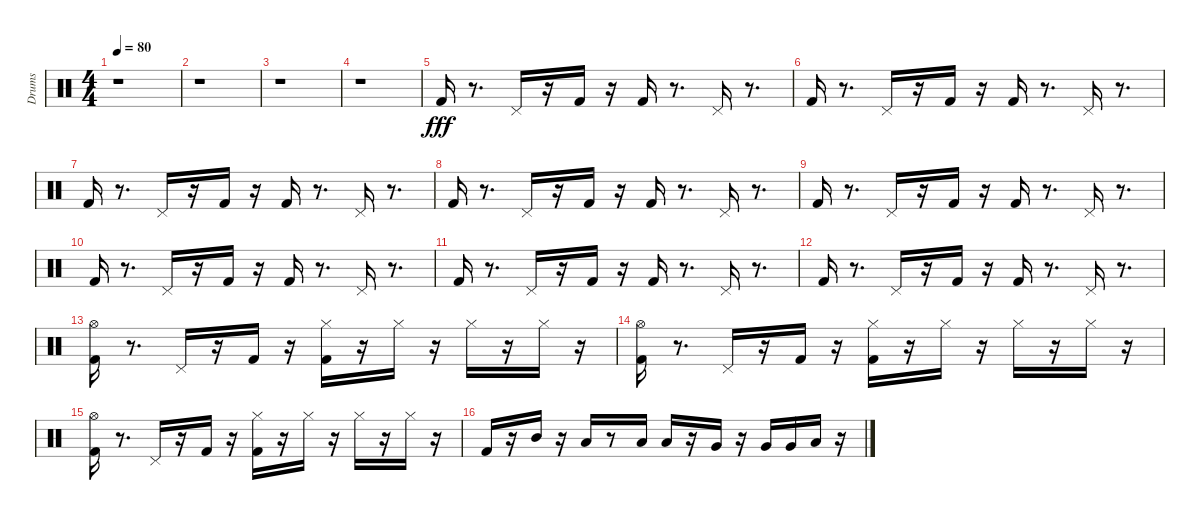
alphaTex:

\track ("Drums" "Drums") {instrument percussion}
\staff {score}
\articulation defaults
\ts (4 4)
\tempo 80
\clef neutral
\ks c
r.1{dy fff} |
r.1 |
r.1 |
r.1 |
"Kick (hit) 2".16 r.8{d} "Pedal Hi-Hat (hit)".16 r.16 "Kick (hit) 2".16 r.16 "Kick (hit) 2".16 r.8{d} "Pedal Hi-Hat (hit)".16 r.8{d} |
"Kick (hit) 2".16 r.8{d} "Pedal Hi-Hat (hit)".16 r.16 "Kick (hit) 2".16 r.16 "Kick (hit) 2".16 r.8{d} "Pedal Hi-Hat (hit)".16 r.8{d} |
"Kick (hit) 2".16 r.8{d} "Pedal Hi-Hat (hit)".16 r.16 "Kick (hit) 2".16 r.16 "Kick (hit) 2".16 r.8{d} "Pedal Hi-Hat (hit)".16 r.8{d} |
"Kick (hit) 2".16 r.8{d} "Pedal Hi-Hat (hit)".16 r.16 "Kick (hit) 2".16 r.16 "Kick (hit) 2".16 r.8{d} "Pedal Hi-Hat (hit)".16 r.8{d} |
"Kick (hit) 2".16 r.8{d} "Pedal Hi-Hat (hit)".16 r.16 "Kick (hit) 2".16 r.16 "Kick (hit) 2".16 r.8{d} "Pedal Hi-Hat (hit)".16 r.8{d} |
"Kick (hit) 2".16 r.8{d} "Pedal Hi-Hat (hit)".16 r.16 "Kick (hit) 2".16 r.16 "Kick (hit) 2".16 r.8{d} "Pedal Hi-Hat (hit)".16 r.8{d} |
"Kick (hit) 2".16 r.8{d} "Pedal Hi-Hat (hit)".16 r.16 "Kick (hit) 2".16 r.16 "Kick (hit) 2".16 r.8{d} "Pedal Hi-Hat (hit)".16 r.8{d} |
"Kick (hit) 2".16 r.8{d} "Pedal Hi-Hat (hit)".16 r.16 "Kick (hit) 2".16 r.16 "Kick (hit) 2".16 r.8{d} "Pedal Hi-Hat (hit)".16 r.8{d} |
("Kick (hit) 2" "Hi-Hat (open)").16 r.8{d} "Pedal Hi-Hat (hit)".16 r.16 "Kick (hit) 2".16 r.16 ("Hi-Hat (closed)" "Kick (hit) 2").16 r.16 "Hi-Hat (closed)".16 r.16 "Hi-Hat (closed)".16 r.16 "Hi-Hat (closed)".16 r.16 |
("Hi-Hat (open)" "Kick (hit) 2").16 r.8{d} "Pedal Hi-Hat (hit)".16 r.16 "Kick (hit) 2".16 r.16 ("Kick (hit) 2" "Hi-Hat (closed)").16 r.16 "Hi-Hat (closed)".16 r.16 "Hi-Hat (closed)".16 r.16 "Hi-Hat (closed)".16 r.16 |
("Kick (hit) 2" "Hi-Hat (open)").16 r.8{d} "Pedal Hi-Hat (hit)".16 r.16 "Kick (hit) 2".16 r.16 ("Hi-Hat (closed)" "Kick (hit) 2").16 r.16 "Hi-Hat (closed)".16 r.16 "Hi-Hat (closed)".16 r.16 "Hi-Hat (closed)".16 r.16 |
"Kick (hit) 2".16 r.16 "Mid Tom (hit)".16 r.16 "Low Tom (hit)".16 r.8 "Low Tom (hit)".16 "Low Tom (hit)".16 r.16 "Very Low Tom (hit)".16 r.16 "Very Low Tom (hit)".16 "Very Low Tom (hit)".16 "Low Floor Tom (hit)".16 r.16
